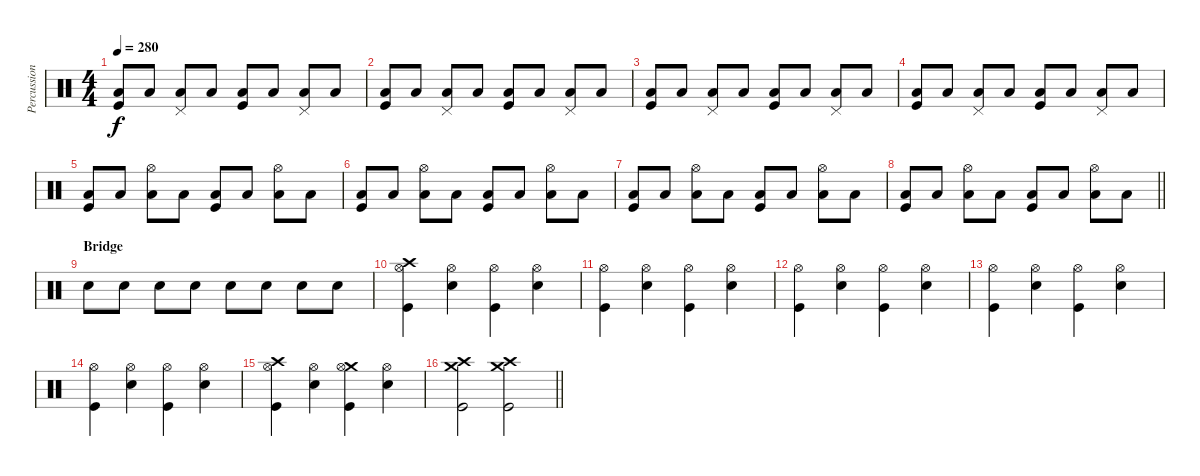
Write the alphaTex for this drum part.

\track ("Percussion" "Percussion") {instrument percussion}
\staff {score}
\articulation defaults
\ts (4 4)
\tempo 280
\clef neutral
\ks c
("Low Floor Tom (hit)" "Kick (hit)").8{dy f} "Low Floor Tom (hit)".8 ("Pedal Hi-Hat (hit)" "Low Floor Tom (hit)").8 "Low Floor Tom (hit)".8 ("Low Floor Tom (hit)" "Kick (hit)").8 "Low Floor Tom (hit)".8 ("Pedal Hi-Hat (hit)" "Low Floor Tom (hit)").8 "Low Floor Tom (hit)".8 |
("Low Floor Tom (hit)" "Kick (hit)").8 "Low Floor Tom (hit)".8 ("Pedal Hi-Hat (hit)" "Low Floor Tom (hit)").8 "Low Floor Tom (hit)".8 ("Low Floor Tom (hit)" "Kick (hit)").8 "Low Floor Tom (hit)".8 ("Pedal Hi-Hat (hit)" "Low Floor Tom (hit)").8 "Low Floor Tom (hit)".8 |
("Low Floor Tom (hit)" "Kick (hit)").8 "Low Floor Tom (hit)".8 ("Pedal Hi-Hat (hit)" "Low Floor Tom (hit)").8 "Low Floor Tom (hit)".8 ("Low Floor Tom (hit)" "Kick (hit)").8 "Low Floor Tom (hit)".8 ("Pedal Hi-Hat (hit)" "Low Floor Tom (hit)").8 "Low Floor Tom (hit)".8 |
("Low Floor Tom (hit)" "Kick (hit)").8 "Low Floor Tom (hit)".8 ("Pedal Hi-Hat (hit)" "Low Floor Tom (hit)").8 "Low Floor Tom (hit)".8 ("Low Floor Tom (hit)" "Kick (hit)").8 "Low Floor Tom (hit)".8 ("Pedal Hi-Hat (hit)" "Low Floor Tom (hit)").8 "Low Floor Tom (hit)".8 |
("Low Floor Tom (hit)" "Kick (hit)").8 "Low Floor Tom (hit)".8 ("Hi-Hat (open)" "Low Floor Tom (hit)").8 "Low Floor Tom (hit)".8 ("Low Floor Tom (hit)" "Kick (hit)").8 "Low Floor Tom (hit)".8 ("Hi-Hat (open)" "Low Floor Tom (hit)").8 "Low Floor Tom (hit)".8 |
("Low Floor Tom (hit)" "Kick (hit)").8 "Low Floor Tom (hit)".8 ("Hi-Hat (open)" "Low Floor Tom (hit)").8 "Low Floor Tom (hit)".8 ("Low Floor Tom (hit)" "Kick (hit)").8 "Low Floor Tom (hit)".8 ("Hi-Hat (open)" "Low Floor Tom (hit)").8 "Low Floor Tom (hit)".8 |
("Low Floor Tom (hit)" "Kick (hit)").8 "Low Floor Tom (hit)".8 ("Hi-Hat (open)" "Low Floor Tom (hit)").8 "Low Floor Tom (hit)".8 ("Low Floor Tom (hit)" "Kick (hit)").8 "Low Floor Tom (hit)".8 ("Hi-Hat (open)" "Low Floor Tom (hit)").8 "Low Floor Tom (hit)".8 |
\barLineRight lightlight
("Low Floor Tom (hit)" "Kick (hit)").8 "Low Floor Tom (hit)".8 ("Hi-Hat (open)" "Low Floor Tom (hit)").8 "Low Floor Tom (hit)".8 ("Low Floor Tom (hit)" "Kick (hit)").8 "Low Floor Tom (hit)".8 ("Hi-Hat (open)" "Low Floor Tom (hit)").8 "Low Floor Tom (hit)".8 |
\section ("" "Bridge")
"Snare (hit) 2".8 "Snare (hit) 2".8 "Snare (hit) 2".8 "Snare (hit) 2".8 "Snare (hit) 2".8 "Snare (hit) 2".8 "Snare (hit) 2".8 "Snare (hit) 2".8 |
("Crash high (hit)" "Hi-Hat (open)" "Kick (hit)").4 ("Hi-Hat (open)" "Snare (hit) 2").4 ("Hi-Hat (open)" "Kick (hit)").4 ("Hi-Hat (open)" "Snare (hit) 2").4 |
("Hi-Hat (open)" "Kick (hit)").4 ("Hi-Hat (open)" "Snare (hit) 2").4 ("Hi-Hat (open)" "Kick (hit)").4 ("Hi-Hat (open)" "Snare (hit) 2").4 |
("Hi-Hat (open)" "Kick (hit)").4 ("Hi-Hat (open)" "Snare (hit) 2").4 ("Hi-Hat (open)" "Kick (hit)").4 ("Hi-Hat (open)" "Snare (hit) 2").4 |
("Hi-Hat (open)" "Kick (hit)").4 ("Hi-Hat (open)" "Snare (hit) 2").4 ("Hi-Hat (open)" "Kick (hit)").4 ("Hi-Hat (open)" "Snare (hit) 2").4 |
("Hi-Hat (open)" "Kick (hit)").4 ("Hi-Hat (open)" "Snare (hit) 2").4 ("Hi-Hat (open)" "Kick (hit)").4 ("Hi-Hat (open)" "Snare (hit) 2").4 |
("Crash high (hit)" "Hi-Hat (open)" "Kick (hit)").4 ("Hi-Hat (open)" "Snare (hit) 2").4 ("Crash medium (hit)" "Hi-Hat (open)" "Kick (hit)").4 ("Hi-Hat (open)" "Snare (hit) 2").4 |
\barLineRight lightlight
("Crash medium (hit)" "Crash high (hit)" "Kick (hit)").2 ("Crash medium (hit)" "Crash high (hit)" "Kick (hit)").2
